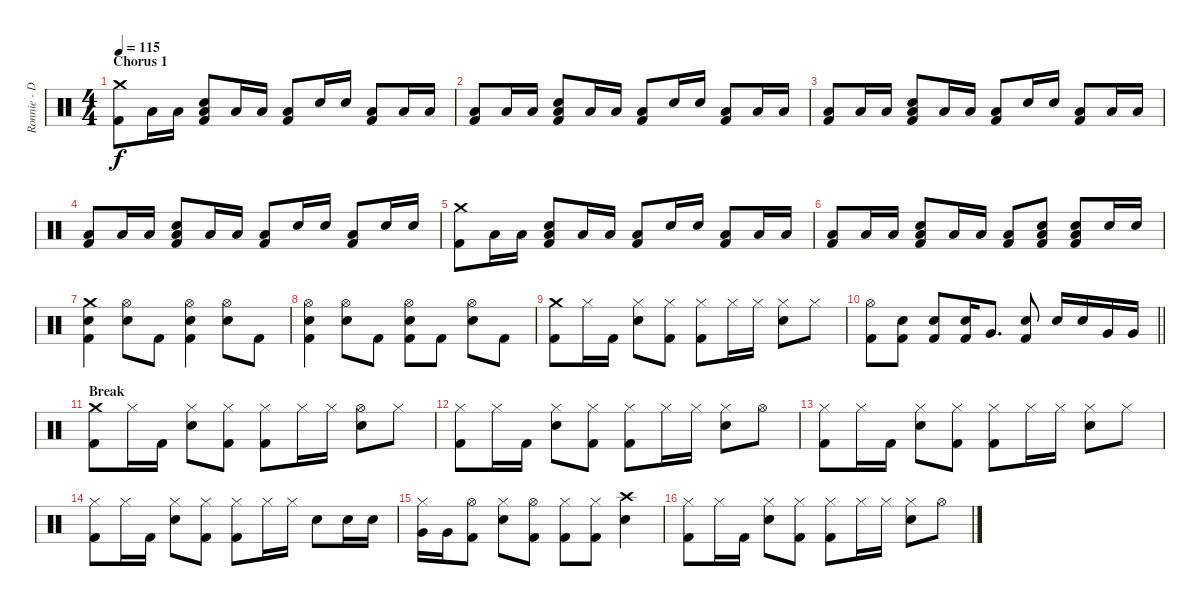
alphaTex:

\track ("Ronnie - Drums" "Ronnie - D") {instrument percussion}
\staff {score}
\articulation defaults
\ts (4 4)
\section ("" "Chorus 1")
\tempo 115
\clef neutral
\ks c
("Crash medium (hit)" "Kick (hit) 2").8{dy f} "Low Floor Tom (hit)".16 "Low Floor Tom (hit)".16 ("Low Floor Tom (hit)" "Electric Snare (hit)" "Kick (hit) 2").8 "Low Floor Tom (hit)".16 "Low Floor Tom (hit)".16 ("Low Floor Tom (hit)" "Kick (hit) 2").8 "Electric Snare (hit)".16 "Electric Snare (hit)".16 ("Low Floor Tom (hit)" "Kick (hit) 2").8 "Low Floor Tom (hit)".16 "Low Floor Tom (hit)".16 |
("Low Floor Tom (hit)" "Kick (hit) 2").8 "Low Floor Tom (hit)".16 "Low Floor Tom (hit)".16 ("Low Floor Tom (hit)" "Electric Snare (hit)" "Kick (hit) 2").8 "Low Floor Tom (hit)".16 "Low Floor Tom (hit)".16 ("Low Floor Tom (hit)" "Kick (hit) 2").8 "Electric Snare (hit)".16 "Electric Snare (hit)".16 ("Low Floor Tom (hit)" "Kick (hit) 2").8 "Low Floor Tom (hit)".16 "Low Floor Tom (hit)".16 |
("Low Floor Tom (hit)" "Kick (hit) 2").8 "Low Floor Tom (hit)".16 "Low Floor Tom (hit)".16 ("Low Floor Tom (hit)" "Electric Snare (hit)" "Kick (hit) 2").8 "Low Floor Tom (hit)".16 "Low Floor Tom (hit)".16 ("Low Floor Tom (hit)" "Kick (hit) 2").8 "Electric Snare (hit)".16 "Electric Snare (hit)".16 ("Low Floor Tom (hit)" "Kick (hit) 2").8 "Low Floor Tom (hit)".16 "Low Floor Tom (hit)".16 |
("Low Floor Tom (hit)" "Kick (hit) 2").8 "Low Floor Tom (hit)".16 "Low Floor Tom (hit)".16 ("Low Floor Tom (hit)" "Electric Snare (hit)" "Kick (hit) 2").8 "Low Floor Tom (hit)".16 "Low Floor Tom (hit)".16 ("Low Floor Tom (hit)" "Kick (hit) 2").8 "Electric Snare (hit)".16 "Electric Snare (hit)".16 ("Low Floor Tom (hit)" "Kick (hit) 2").8 "Electric Snare (hit)".16 "Electric Snare (hit)".16 |
("Crash medium (hit)" "Kick (hit) 2").8 "Low Floor Tom (hit)".16 "Low Floor Tom (hit)".16 ("Low Floor Tom (hit)" "Electric Snare (hit)" "Kick (hit) 2").8 "Low Floor Tom (hit)".16 "Low Floor Tom (hit)".16 ("Low Floor Tom (hit)" "Kick (hit) 2").8 "Electric Snare (hit)".16 "Electric Snare (hit)".16 ("Low Floor Tom (hit)" "Kick (hit) 2").8 "Low Floor Tom (hit)".16 "Low Floor Tom (hit)".16 |
("Low Floor Tom (hit)" "Kick (hit) 2").8 "Low Floor Tom (hit)".16 "Low Floor Tom (hit)".16 ("Low Floor Tom (hit)" "Electric Snare (hit)" "Kick (hit) 2").8 "Low Floor Tom (hit)".16 "Low Floor Tom (hit)".16 ("Low Floor Tom (hit)" "Kick (hit) 2").8 ("Low Floor Tom (hit)" "Electric Snare (hit)" "Kick (hit) 2").8 ("Low Floor Tom (hit)" "Electric Snare (hit)" "Kick (hit) 2").8 "Electric Snare (hit)".16 "Electric Snare (hit)".16 |
("Crash medium (hit)" "Electric Snare (hit)" "Kick (hit) 2").4 ("Hi-Hat (open)" "Electric Snare (hit)").8 "Kick (hit) 2".8 ("Hi-Hat (open)" "Electric Snare (hit)" "Kick (hit) 2").4 ("Hi-Hat (open)" "Electric Snare (hit)").8 "Kick (hit) 2".8 |
("Hi-Hat (open)" "Electric Snare (hit)" "Kick (hit) 2").4 ("Hi-Hat (open)" "Electric Snare (hit)").8 "Kick (hit) 2".8 ("Hi-Hat (open)" "Electric Snare (hit)" "Kick (hit) 2").8 "Kick (hit) 2".8 ("Hi-Hat (open)" "Electric Snare (hit)").8 "Kick (hit) 2".8 |
("Crash medium (hit)" "Kick (hit) 2").8 "Hi-Hat (closed)".16 "Kick (hit) 2".16 ("Hi-Hat (closed)" "Electric Snare (hit)").8 ("Hi-Hat (closed)" "Kick (hit) 2").8 ("Hi-Hat (closed)" "Kick (hit) 2").8 "Hi-Hat (closed)".16 "Hi-Hat (closed)".16 ("Hi-Hat (closed)" "Electric Snare (hit)").8 "Hi-Hat (closed)".8 |
\barLineRight lightlight
("Hi-Hat (open)" "Kick (hit) 2").8 ("Electric Snare (hit)" "Kick (hit) 2").8 ("Electric Snare (hit)" "Kick (hit) 2").8 ("Electric Snare (hit)" "Kick (hit) 2").16 "Very Low Tom (hit)".8{d} ("Electric Snare (hit)" "Kick (hit) 2").8 "Electric Snare (hit)".16 "Electric Snare (hit)".16 "Very Low Tom (hit)".16 "Very Low Tom (hit)".16 |
\section ("" "Break")
("Crash medium (hit)" "Kick (hit) 2").8 "Hi-Hat (closed)".16 "Kick (hit) 2".16 ("Hi-Hat (closed)" "Electric Snare (hit)").8 ("Hi-Hat (closed)" "Kick (hit) 2").8 ("Hi-Hat (closed)" "Kick (hit) 2").8 "Hi-Hat (closed)".16 "Hi-Hat (closed)".16 ("Hi-Hat (open)" "Electric Snare (hit)").8 "Hi-Hat (closed)".8 |
("Hi-Hat (closed)" "Kick (hit) 2").8 "Hi-Hat (closed)".16 "Kick (hit) 2".16 ("Hi-Hat (closed)" "Electric Snare (hit)").8 ("Hi-Hat (closed)" "Kick (hit) 2").8 ("Hi-Hat (closed)" "Kick (hit) 2").8 "Hi-Hat (closed)".16 "Hi-Hat (closed)".16 ("Hi-Hat (closed)" "Electric Snare (hit)").8 "Hi-Hat (open)".8 |
("Hi-Hat (closed)" "Kick (hit) 2").8 "Hi-Hat (closed)".16 "Kick (hit) 2".16 ("Hi-Hat (closed)" "Electric Snare (hit)").8 ("Hi-Hat (closed)" "Kick (hit) 2").8 ("Hi-Hat (closed)" "Kick (hit) 2").8 "Hi-Hat (closed)".16 "Hi-Hat (closed)".16 ("Hi-Hat (closed)" "Electric Snare (hit)").8 "Hi-Hat (closed)".8 |
("Hi-Hat (closed)" "Kick (hit) 2").8 "Hi-Hat (closed)".16 "Kick (hit) 2".16 ("Hi-Hat (closed)" "Electric Snare (hit)").8 ("Hi-Hat (closed)" "Kick (hit) 2").8 ("Hi-Hat (closed)" "Kick (hit) 2").8 "Hi-Hat (closed)".16 "Hi-Hat (closed)".16 "Electric Snare (hit)".8 "Electric Snare (hit)".16 "Electric Snare (hit)".16 |
("Hi-Hat (closed)" "Very Low Tom (hit)").16 "Very Low Tom (hit)".16 ("Hi-Hat (open)" "Kick (hit) 2").8 ("Hi-Hat (closed)" "Electric Snare (hit)").8 ("Hi-Hat (open)" "Kick (hit) 2").8 ("Hi-Hat (closed)" "Kick (hit) 2").8 ("Hi-Hat (closed)" "Kick (hit) 2").8 ("Crash high (hit)" "Electric Snare (hit)").4 |
("Hi-Hat (closed)" "Kick (hit) 2").8 "Hi-Hat (closed)".16 "Kick (hit) 2".16 ("Hi-Hat (closed)" "Electric Snare (hit)").8 ("Hi-Hat (closed)" "Kick (hit) 2").8 ("Hi-Hat (closed)" "Kick (hit) 2").8 "Hi-Hat (closed)".16 "Hi-Hat (closed)".16 ("Hi-Hat (closed)" "Electric Snare (hit)").8 "Hi-Hat (open)".8
